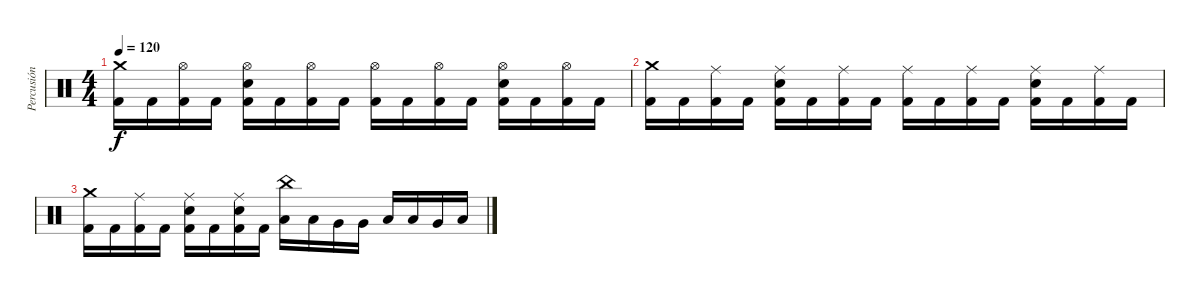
\track ("Percusión" "Percusión") {instrument percussion}
\staff {score}
\articulation defaults
\ts (4 4)
\tempo 120
\clef neutral
\ks c
("Crash medium (hit)" "Kick (hit) 2").16{dy f} "Kick (hit) 2".16 ("Hi-Hat (open)" "Kick (hit) 2").16 "Kick (hit) 2".16 ("Hi-Hat (open)" "Electric Snare (hit)" "Kick (hit) 2").16 "Kick (hit) 2".16 ("Hi-Hat (open)" "Kick (hit) 2").16 "Kick (hit) 2".16 ("Hi-Hat (open)" "Kick (hit) 2").16 "Kick (hit) 2".16 ("Hi-Hat (open)" "Kick (hit) 2").16 "Kick (hit) 2".16 ("Hi-Hat (open)" "Electric Snare (hit)" "Kick (hit) 2").16 "Kick (hit) 2".16 ("Hi-Hat (open)" "Kick (hit) 2").16 "Kick (hit) 2".16 |
("Crash medium (hit)" "Kick (hit) 2").16{volume 0} "Kick (hit) 2".16 ("Ride (middle)" "Kick (hit) 2").16 "Kick (hit) 2".16 ("Ride (middle)" "Electric Snare (hit)" "Kick (hit) 2").16 "Kick (hit) 2".16 ("Ride (middle)" "Kick (hit) 2").16 "Kick (hit) 2".16 ("Ride (middle)" "Kick (hit) 2").16 "Kick (hit) 2".16 ("Ride (middle)" "Kick (hit) 2").16 "Kick (hit) 2".16 ("Ride (middle)" "Electric Snare (hit)" "Kick (hit) 2").16 "Kick (hit) 2".16 ("Ride (middle)" "Kick (hit) 2").16 "Kick (hit) 2".16 |
("Crash medium (hit)" "Kick (hit) 2").16 "Kick (hit) 2".16 ("Ride (middle)" "Kick (hit) 2").16 "Kick (hit) 2".16 ("Ride (middle)" "Electric Snare (hit)" "Kick (hit) 2").16 "Kick (hit) 2".16 ("Ride (middle)" "Electric Snare (hit)" "Kick (hit) 2").16 "Kick (hit) 2".16 ("China (hit)" "Low Tom (hit)").16 "Low Tom (hit)".16 "Very Low Tom (hit)".16 "Very Low Tom (hit)".16 "Low Floor Tom (hit)".16 "Low Floor Tom (hit)".16 "Very Low Tom (hit)".16 "Low Tom (hit)".16
